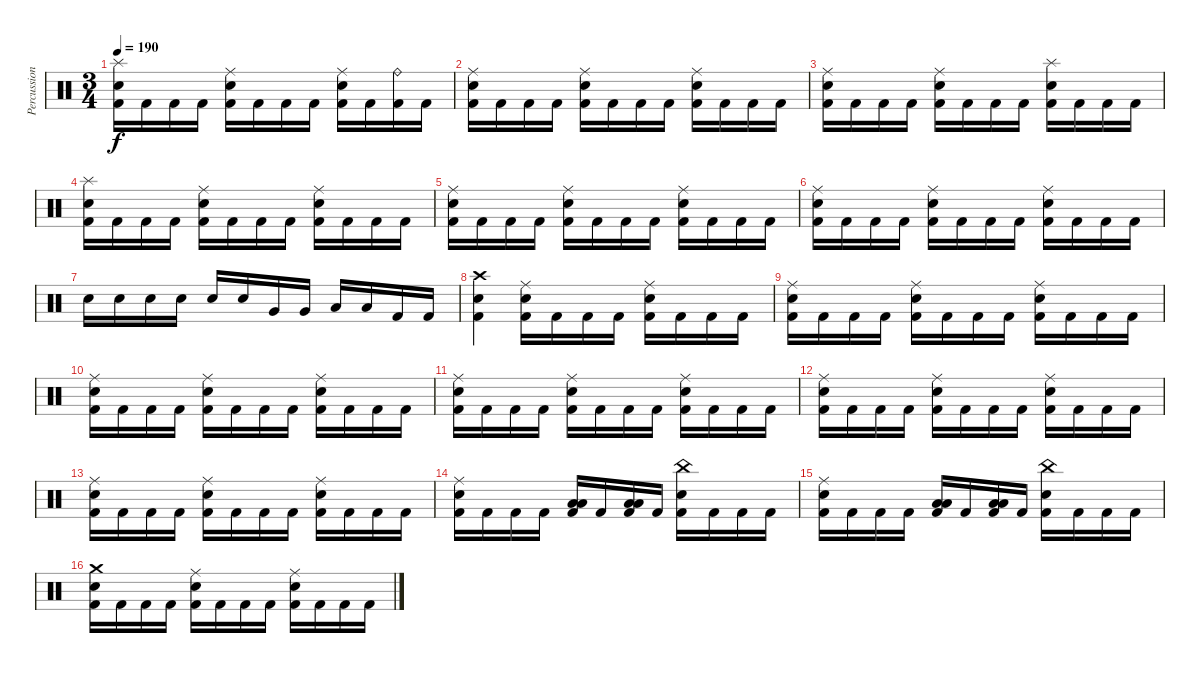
\track ("Percussion" "Percussion") {instrument percussion}
\staff {score}
\articulation defaults
\ts (3 4)
\tempo 190
\clef neutral
\ks c
("Splash (hit)" "Electric Snare (hit)" "Kick (hit) 2").16{dy f} "Kick (hit) 2".16 "Kick (hit) 2".16 "Kick (hit) 2".16 ("Ride (middle)" "Electric Snare (hit)" "Kick (hit) 2").16 "Kick (hit) 2".16 "Kick (hit) 2".16 "Kick (hit) 2".16 ("Ride (middle)" "Electric Snare (hit)" "Kick (hit) 2").16 "Kick (hit) 2".16 ("Ride (bell)" "Kick (hit) 2").16 "Kick (hit) 2".16 |
("Ride (middle)" "Electric Snare (hit)" "Kick (hit) 2").16 "Kick (hit) 2".16 "Kick (hit) 2".16 "Kick (hit) 2".16 ("Ride (middle)" "Electric Snare (hit)" "Kick (hit) 2").16 "Kick (hit) 2".16 "Kick (hit) 2".16 "Kick (hit) 2".16 ("Ride (middle)" "Electric Snare (hit)" "Kick (hit) 2").16 "Kick (hit) 2".16 "Kick (hit) 2".16 "Kick (hit) 2".16 |
("Ride (middle)" "Electric Snare (hit)" "Kick (hit) 2").16 "Kick (hit) 2".16 "Kick (hit) 2".16 "Kick (hit) 2".16 ("Ride (middle)" "Electric Snare (hit)" "Kick (hit) 2").16 "Kick (hit) 2".16 "Kick (hit) 2".16 "Kick (hit) 2".16 ("Splash (hit)" "Electric Snare (hit)" "Kick (hit) 2").16 "Kick (hit) 2".16 "Kick (hit) 2".16 "Kick (hit) 2".16 |
("Splash (hit)" "Electric Snare (hit)" "Kick (hit) 2").16 "Kick (hit) 2".16 "Kick (hit) 2".16 "Kick (hit) 2".16 ("Ride (middle)" "Electric Snare (hit)" "Kick (hit) 2").16 "Kick (hit) 2".16 "Kick (hit) 2".16 "Kick (hit) 2".16 ("Ride (middle)" "Electric Snare (hit)" "Kick (hit) 2").16 "Kick (hit) 2".16 "Kick (hit) 2".16 "Kick (hit) 2".16 |
("Ride (middle)" "Electric Snare (hit)" "Kick (hit) 2").16 "Kick (hit) 2".16 "Kick (hit) 2".16 "Kick (hit) 2".16 ("Ride (middle)" "Electric Snare (hit)" "Kick (hit) 2").16 "Kick (hit) 2".16 "Kick (hit) 2".16 "Kick (hit) 2".16 ("Ride (middle)" "Electric Snare (hit)" "Kick (hit) 2").16 "Kick (hit) 2".16 "Kick (hit) 2".16 "Kick (hit) 2".16 |
("Ride (middle)" "Electric Snare (hit)" "Kick (hit) 2").16 "Kick (hit) 2".16 "Kick (hit) 2".16 "Kick (hit) 2".16 ("Ride (middle)" "Electric Snare (hit)" "Kick (hit) 2").16 "Kick (hit) 2".16 "Kick (hit) 2".16 "Kick (hit) 2".16 ("Ride (middle)" "Electric Snare (hit)" "Kick (hit) 2").16 "Kick (hit) 2".16 "Kick (hit) 2".16 "Kick (hit) 2".16 |
"Electric Snare (hit)".16 "Electric Snare (hit)".16 "Electric Snare (hit)".16 "Electric Snare (hit)".16 "Electric Snare (hit)".16 "Electric Snare (hit)".16 "Very Low Tom (hit)".16 "Very Low Tom (hit)".16 "Low Floor Tom (hit)".16 "Low Floor Tom (hit)".16 "Kick (hit) 2".16 "Kick (hit) 2".16 |
("Crash high (hit)" "Electric Snare (hit)" "Kick (hit) 2").4 ("Ride (middle)" "Electric Snare (hit)" "Kick (hit) 2").16 "Kick (hit) 2".16 "Kick (hit) 2".16 "Kick (hit) 2".16 ("Ride (middle)" "Electric Snare (hit)" "Kick (hit) 2").16 "Kick (hit) 2".16 "Kick (hit) 2".16 "Kick (hit) 2".16 |
("Ride (middle)" "Electric Snare (hit)" "Kick (hit) 2").16 "Kick (hit) 2".16 "Kick (hit) 2".16 "Kick (hit) 2".16 ("Ride (middle)" "Electric Snare (hit)" "Kick (hit) 2").16 "Kick (hit) 2".16 "Kick (hit) 2".16 "Kick (hit) 2".16 ("Ride (middle)" "Electric Snare (hit)" "Kick (hit) 2").16 "Kick (hit) 2".16 "Kick (hit) 2".16 "Kick (hit) 2".16 |
("Ride (middle)" "Electric Snare (hit)" "Kick (hit) 2").16 "Kick (hit) 2".16 "Kick (hit) 2".16 "Kick (hit) 2".16 ("Ride (middle)" "Electric Snare (hit)" "Kick (hit) 2").16 "Kick (hit) 2".16 "Kick (hit) 2".16 "Kick (hit) 2".16 ("Ride (middle)" "Electric Snare (hit)" "Kick (hit) 2").16 "Kick (hit) 2".16 "Kick (hit) 2".16 "Kick (hit) 2".16 |
("Ride (middle)" "Electric Snare (hit)" "Kick (hit) 2").16 "Kick (hit) 2".16 "Kick (hit) 2".16 "Kick (hit) 2".16 ("Ride (middle)" "Electric Snare (hit)" "Kick (hit) 2").16 "Kick (hit) 2".16 "Kick (hit) 2".16 "Kick (hit) 2".16 ("Ride (middle)" "Electric Snare (hit)" "Kick (hit) 2").16 "Kick (hit) 2".16 "Kick (hit) 2".16 "Kick (hit) 2".16 |
("Ride (middle)" "Electric Snare (hit)" "Kick (hit) 2").16 "Kick (hit) 2".16 "Kick (hit) 2".16 "Kick (hit) 2".16 ("Ride (middle)" "Electric Snare (hit)" "Kick (hit) 2").16 "Kick (hit) 2".16 "Kick (hit) 2".16 "Kick (hit) 2".16 ("Ride (middle)" "Electric Snare (hit)" "Kick (hit) 2").16 "Kick (hit) 2".16 "Kick (hit) 2".16 "Kick (hit) 2".16 |
("Ride (middle)" "Electric Snare (hit)" "Kick (hit) 2").16 "Kick (hit) 2".16 "Kick (hit) 2".16 "Kick (hit) 2".16 ("Ride (middle)" "Electric Snare (hit)" "Kick (hit) 2").16 "Kick (hit) 2".16 "Kick (hit) 2".16 "Kick (hit) 2".16 ("Ride (middle)" "Electric Snare (hit)" "Kick (hit) 2").16 "Kick (hit) 2".16 "Kick (hit) 2".16 "Kick (hit) 2".16 |
("Ride (middle)" "Electric Snare (hit)" "Kick (hit) 2").16 "Kick (hit) 2".16 "Kick (hit) 2".16 "Kick (hit) 2".16 ("Low Tom (hit)" "Low Floor Tom (hit)" "Kick (hit) 2").16 "Kick (hit) 2".16 ("Low Tom (hit)" "Low Floor Tom (hit)" "Kick (hit) 2").16 "Kick (hit) 2".16 ("China (hit)" "Electric Snare (hit)" "Kick (hit) 2").16 "Kick (hit) 2".16 "Kick (hit) 2".16 "Kick (hit) 2".16 |
("Ride (middle)" "Electric Snare (hit)" "Kick (hit) 2").16 "Kick (hit) 2".16 "Kick (hit) 2".16 "Kick (hit) 2".16 ("Low Tom (hit)" "Low Floor Tom (hit)" "Kick (hit) 2").16 "Kick (hit) 2".16 ("Low Tom (hit)" "Low Floor Tom (hit)" "Kick (hit) 2").16 "Kick (hit) 2".16 ("China (hit)" "Electric Snare (hit)" "Kick (hit) 2").16 "Kick (hit) 2".16 "Kick (hit) 2".16 "Kick (hit) 2".16 |
("Crash medium (hit)" "Electric Snare (hit)" "Kick (hit) 2").16 "Kick (hit) 2".16 "Kick (hit) 2".16 "Kick (hit) 2".16 ("Ride (middle)" "Electric Snare (hit)" "Kick (hit) 2").16 "Kick (hit) 2".16 "Kick (hit) 2".16 "Kick (hit) 2".16 ("Ride (middle)" "Electric Snare (hit)" "Kick (hit) 2").16 "Kick (hit) 2".16 "Kick (hit) 2".16 "Kick (hit) 2".16
